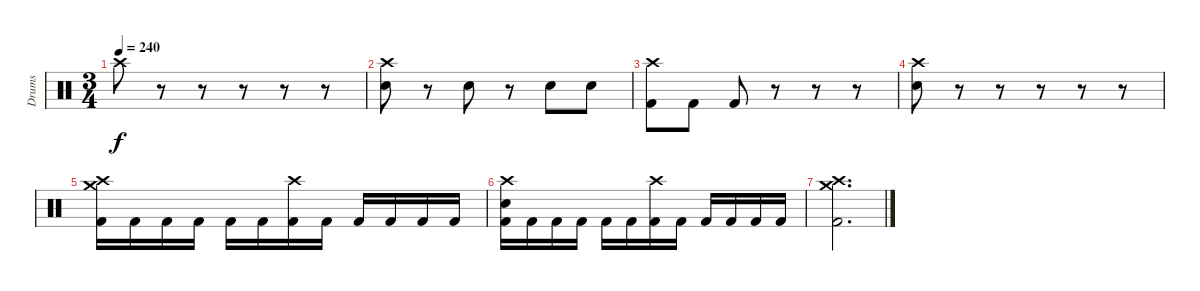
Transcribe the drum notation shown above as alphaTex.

\track ("Drums" "Drums") {instrument percussion}
\staff {score}
\articulation defaults
\ts (3 4)
\tempo 240
\clef neutral
\ks c "Crash high (hit)".8{dy f}
r.8 r.8 r.8 r.8 r.8 |
("Crash high (hit)" "Electric Snare (hit)").8 r.8 "Electric Snare (hit)".8 r.8 "Electric Snare (hit)".8 "Electric Snare (hit)".8 |
("Crash high (hit)" "Kick (hit) 2").8 "Kick (hit) 2".8 "Kick (hit) 2".8 r.8 r.8 r.8 |
("Crash high (hit)" "Electric Snare (hit)").8 r.8 r.8 r.8 r.8 r.8 |
("Crash medium (hit)" "Crash high (hit)" "Kick (hit) 2").16 "Kick (hit) 2".16 "Kick (hit) 2".16 "Kick (hit) 2".16 "Kick (hit) 2".16 "Kick (hit) 2".16 ("Crash high (hit)" "Kick (hit) 2").16 "Kick (hit) 2".16 "Kick (hit) 2".16 "Kick (hit) 2".16 "Kick (hit) 2".16 "Kick (hit) 2".16 |
("Crash high (hit)" "Electric Snare (hit)" "Kick (hit) 2").16 "Kick (hit) 2".16 "Kick (hit) 2".16 "Kick (hit) 2".16 "Kick (hit) 2".16 "Kick (hit) 2".16 ("Crash high (hit)" "Kick (hit) 2").16 "Kick (hit) 2".16 "Kick (hit) 2".16 "Kick (hit) 2".16 "Kick (hit) 2".16 "Kick (hit) 2".16 |
("Crash high (hit)" "Crash medium (hit)" "Kick (hit) 2").2{d}
